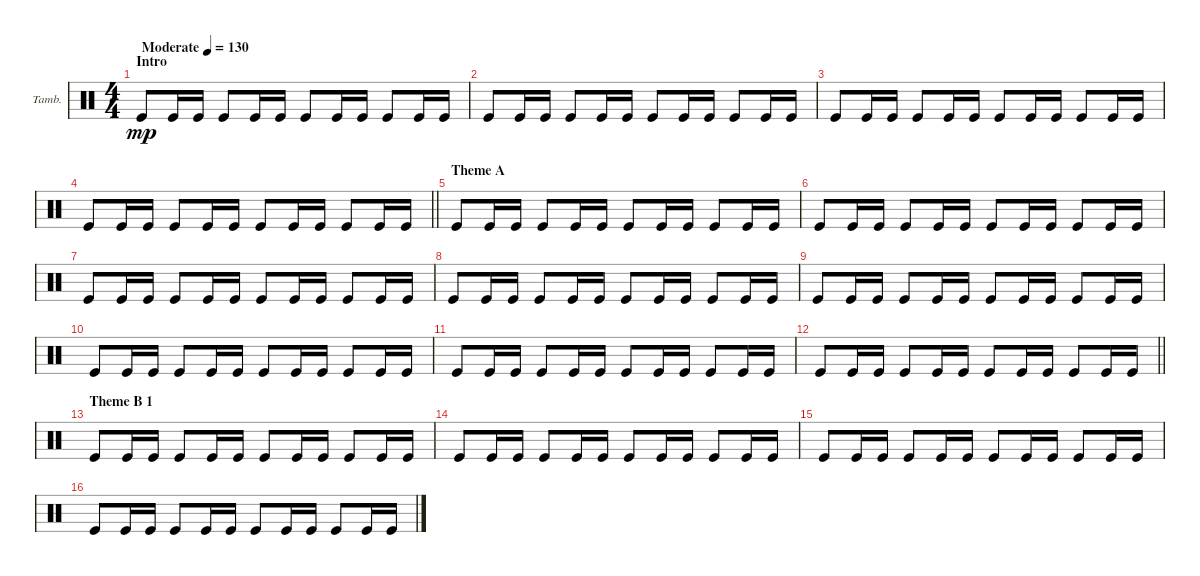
\bracketExtendMode groupsimilarinstruments
\firstSystemTrackNameOrientation horizontal
\otherSystemsTrackNameOrientation horizontal
\track ("Tambourine" "Tamb.") {instrument percussion}
\staff {score}
\articulation defaults
\ts (4 4)
\beaming (8 2 2 2 2)
\section ("" "Intro")
\tempo (130 "Moderate")
\clef neutral
\ks c "Kick (hit)".8{dy mp} "Kick (hit)".16 "Kick (hit)".16 "Kick (hit)".8 "Kick (hit)".16 "Kick (hit)".16 "Kick (hit)".8 "Kick (hit)".16 "Kick (hit)".16 "Kick (hit)".8 "Kick (hit)".16 "Kick (hit)".16
|
"Kick (hit)".8 "Kick (hit)".16 "Kick (hit)".16 "Kick (hit)".8 "Kick (hit)".16 "Kick (hit)".16 "Kick (hit)".8 "Kick (hit)".16 "Kick (hit)".16 "Kick (hit)".8 "Kick (hit)".16 "Kick (hit)".16 |
"Kick (hit)".8 "Kick (hit)".16 "Kick (hit)".16 "Kick (hit)".8 "Kick (hit)".16 "Kick (hit)".16 "Kick (hit)".8 "Kick (hit)".16 "Kick (hit)".16 "Kick (hit)".8 "Kick (hit)".16 "Kick (hit)".16 |
\barLineRight lightlight "Kick (hit)".8 "Kick (hit)".16 "Kick (hit)".16 "Kick (hit)".8 "Kick (hit)".16 "Kick (hit)".16 "Kick (hit)".8 "Kick (hit)".16 "Kick (hit)".16 "Kick (hit)".8 "Kick (hit)".16 "Kick (hit)".16
|
\section ("" "Theme A")
"Kick (hit)".8 "Kick (hit)".16 "Kick (hit)".16 "Kick (hit)".8 "Kick (hit)".16 "Kick (hit)".16 "Kick (hit)".8 "Kick (hit)".16 "Kick (hit)".16 "Kick (hit)".8 "Kick (hit)".16 "Kick (hit)".16 |
"Kick (hit)".8 "Kick (hit)".16 "Kick (hit)".16 "Kick (hit)".8 "Kick (hit)".16 "Kick (hit)".16 "Kick (hit)".8 "Kick (hit)".16 "Kick (hit)".16 "Kick (hit)".8 "Kick (hit)".16 "Kick (hit)".16 |
"Kick (hit)".8 "Kick (hit)".16 "Kick (hit)".16 "Kick (hit)".8 "Kick (hit)".16 "Kick (hit)".16 "Kick (hit)".8 "Kick (hit)".16 "Kick (hit)".16 "Kick (hit)".8 "Kick (hit)".16 "Kick (hit)".16 |
"Kick (hit)".8 "Kick (hit)".16 "Kick (hit)".16 "Kick (hit)".8 "Kick (hit)".16 "Kick (hit)".16 "Kick (hit)".8 "Kick (hit)".16 "Kick (hit)".16 "Kick (hit)".8 "Kick (hit)".16 "Kick (hit)".16 |
"Kick (hit)".8 "Kick (hit)".16 "Kick (hit)".16 "Kick (hit)".8 "Kick (hit)".16 "Kick (hit)".16 "Kick (hit)".8 "Kick (hit)".16 "Kick (hit)".16 "Kick (hit)".8 "Kick (hit)".16 "Kick (hit)".16 |
"Kick (hit)".8 "Kick (hit)".16 "Kick (hit)".16 "Kick (hit)".8 "Kick (hit)".16 "Kick (hit)".16 "Kick (hit)".8 "Kick (hit)".16 "Kick (hit)".16 "Kick (hit)".8 "Kick (hit)".16 "Kick (hit)".16 |
"Kick (hit)".8 "Kick (hit)".16 "Kick (hit)".16 "Kick (hit)".8 "Kick (hit)".16 "Kick (hit)".16 "Kick (hit)".8 "Kick (hit)".16 "Kick (hit)".16 "Kick (hit)".8 "Kick (hit)".16 "Kick (hit)".16 |
\barLineRight lightlight "Kick (hit)".8 "Kick (hit)".16 "Kick (hit)".16 "Kick (hit)".8 "Kick (hit)".16 "Kick (hit)".16 "Kick (hit)".8 "Kick (hit)".16 "Kick (hit)".16 "Kick (hit)".8 "Kick (hit)".16 "Kick (hit)".16
|
\section ("" "Theme B 1")
"Kick (hit)".8 "Kick (hit)".16 "Kick (hit)".16 "Kick (hit)".8 "Kick (hit)".16 "Kick (hit)".16 "Kick (hit)".8 "Kick (hit)".16 "Kick (hit)".16 "Kick (hit)".8 "Kick (hit)".16 "Kick (hit)".16 |
"Kick (hit)".8 "Kick (hit)".16 "Kick (hit)".16 "Kick (hit)".8 "Kick (hit)".16 "Kick (hit)".16 "Kick (hit)".8 "Kick (hit)".16 "Kick (hit)".16 "Kick (hit)".8 "Kick (hit)".16 "Kick (hit)".16 |
"Kick (hit)".8 "Kick (hit)".16 "Kick (hit)".16 "Kick (hit)".8 "Kick (hit)".16 "Kick (hit)".16 "Kick (hit)".8 "Kick (hit)".16 "Kick (hit)".16 "Kick (hit)".8 "Kick (hit)".16 "Kick (hit)".16 |
"Kick (hit)".8 "Kick (hit)".16 "Kick (hit)".16 "Kick (hit)".8 "Kick (hit)".16 "Kick (hit)".16 "Kick (hit)".8 "Kick (hit)".16 "Kick (hit)".16 "Kick (hit)".8 "Kick (hit)".16 "Kick (hit)".16
